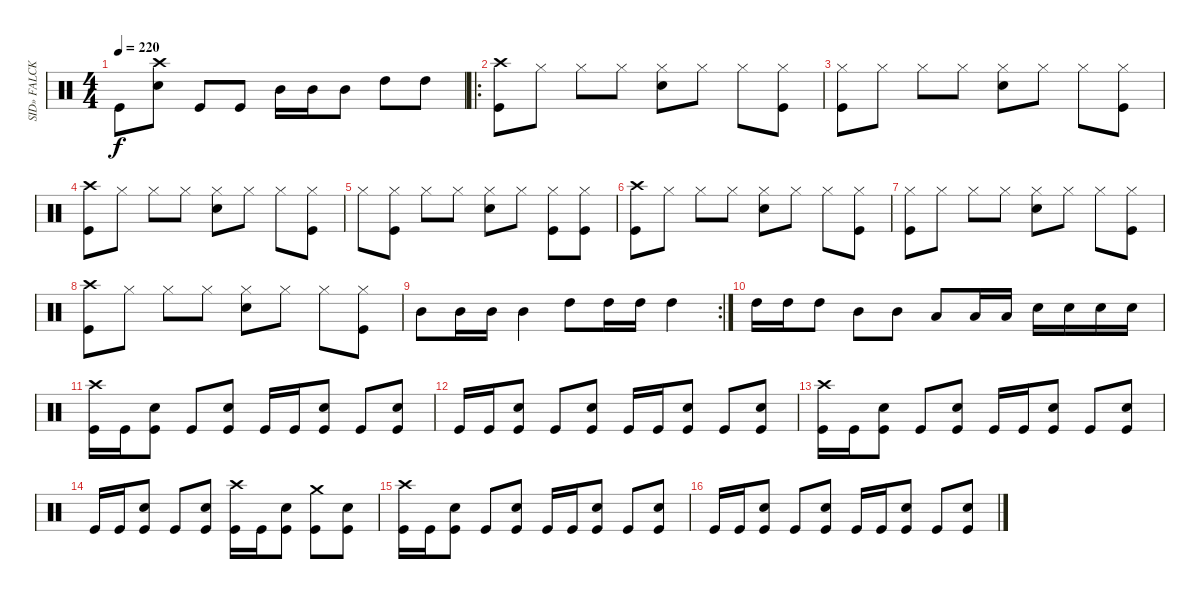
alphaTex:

\track ("SID» FALCK- Drums " "SID» FALCK") {instrument percussion}
\staff {score}
\articulation defaults
\ts (4 4)
\tempo 220
\clef neutral
\ks c "Kick (hit)".8{dy f}
("Crash high (hit)" "Electric Snare (hit)").8 "Kick (hit)".8 "Kick (hit)".8 "Mid Tom (hit)".16 "Mid Tom (hit)".16 "Mid Tom (hit)".8 "High Tom (hit)".8 "High Tom (hit)".8 |
\ro
("Crash high (hit)" "Kick (hit)").8 "Hi-Hat (closed)".8 "Hi-Hat (closed)".8 "Hi-Hat (closed)".8 ("Hi-Hat (closed)" "Electric Snare (hit)").8 "Hi-Hat (closed)".8 "Hi-Hat (closed)".8 ("Hi-Hat (closed)" "Kick (hit)").8 |
("Hi-Hat (closed)" "Kick (hit)").8 "Hi-Hat (closed)".8 "Hi-Hat (closed)".8 "Hi-Hat (closed)".8 ("Hi-Hat (closed)" "Electric Snare (hit)").8 "Hi-Hat (closed)".8 "Hi-Hat (closed)".8 ("Hi-Hat (closed)" "Kick (hit)").8 |
("Crash high (hit)" "Kick (hit)").8 "Hi-Hat (closed)".8 "Hi-Hat (closed)".8 "Hi-Hat (closed)".8 ("Hi-Hat (closed)" "Electric Snare (hit)").8 "Hi-Hat (closed)".8 "Hi-Hat (closed)".8 ("Hi-Hat (closed)" "Kick (hit)").8 |
"Hi-Hat (closed)".8 ("Hi-Hat (closed)" "Kick (hit)").8 "Hi-Hat (closed)".8 "Hi-Hat (closed)".8 ("Hi-Hat (closed)" "Electric Snare (hit)").8 "Hi-Hat (closed)".8 ("Hi-Hat (closed)" "Kick (hit)").8 ("Hi-Hat (closed)" "Kick (hit)").8 |
("Crash high (hit)" "Kick (hit)").8 "Hi-Hat (closed)".8 "Hi-Hat (closed)".8 "Hi-Hat (closed)".8 ("Hi-Hat (closed)" "Electric Snare (hit)").8 "Hi-Hat (closed)".8 "Hi-Hat (closed)".8 ("Hi-Hat (closed)" "Kick (hit)").8 |
("Hi-Hat (closed)" "Kick (hit)").8 "Hi-Hat (closed)".8 "Hi-Hat (closed)".8 "Hi-Hat (closed)".8 ("Hi-Hat (closed)" "Electric Snare (hit)").8 "Hi-Hat (closed)".8 "Hi-Hat (closed)".8 ("Hi-Hat (closed)" "Kick (hit)").8 |
("Crash high (hit)" "Kick (hit)").8 "Hi-Hat (closed)".8 "Hi-Hat (closed)".8 "Hi-Hat (closed)".8 ("Hi-Hat (closed)" "Electric Snare (hit)").8 "Hi-Hat (closed)".8 "Hi-Hat (closed)".8 ("Hi-Hat (closed)" "Kick (hit)").8 |
\rc 2 "Mid Tom (hit)".8 "Mid Tom (hit)".16 "Mid Tom (hit)".16 "Mid Tom (hit)".4 "High Tom (hit)".8 "High Tom (hit)".16 "High Tom (hit)".16 "High Tom (hit)".4
|
"High Tom (hit)".16 "High Tom (hit)".16 "High Tom (hit)".8 "Mid Tom (hit)".8 "Mid Tom (hit)".8 "Low Tom (hit)".8 "Low Tom (hit)".16 "Low Tom (hit)".16 "Electric Snare (hit)".16 "Electric Snare (hit)".16 "Electric Snare (hit)".16 "Electric Snare (hit)".16 |
("Crash high (hit)" "Kick (hit)").16 "Kick (hit)".16 ("Electric Snare (hit)" "Kick (hit)").8 "Kick (hit)".8 ("Electric Snare (hit)" "Kick (hit)").8 "Kick (hit)".16 "Kick (hit)".16 ("Electric Snare (hit)" "Kick (hit)").8 "Kick (hit)".8 ("Electric Snare (hit)" "Kick (hit)").8 |
"Kick (hit)".16 "Kick (hit)".16 ("Electric Snare (hit)" "Kick (hit)").8 "Kick (hit)".8 ("Electric Snare (hit)" "Kick (hit)").8 "Kick (hit)".16 "Kick (hit)".16 ("Electric Snare (hit)" "Kick (hit)").8 "Kick (hit)".8 ("Electric Snare (hit)" "Kick (hit)").8 |
("Crash high (hit)" "Kick (hit)").16 "Kick (hit)".16 ("Electric Snare (hit)" "Kick (hit)").8 "Kick (hit)".8 ("Electric Snare (hit)" "Kick (hit)").8 "Kick (hit)".16 "Kick (hit)".16 ("Electric Snare (hit)" "Kick (hit)").8 "Kick (hit)".8 ("Electric Snare (hit)" "Kick (hit)").8 |
"Kick (hit)".16 "Kick (hit)".16 ("Electric Snare (hit)" "Kick (hit)").8 "Kick (hit)".8 ("Electric Snare (hit)" "Kick (hit)").8 ("Crash high (hit)" "Kick (hit)").16 "Kick (hit)".16 ("Electric Snare (hit)" "Kick (hit)").8 ("Crash medium (hit)" "Kick (hit)").8 ("Electric Snare (hit)" "Kick (hit)").8 |
("Crash high (hit)" "Kick (hit)").16 "Kick (hit)".16 ("Electric Snare (hit)" "Kick (hit)").8 "Kick (hit)".8 ("Electric Snare (hit)" "Kick (hit)").8 "Kick (hit)".16 "Kick (hit)".16 ("Electric Snare (hit)" "Kick (hit)").8 "Kick (hit)".8 ("Electric Snare (hit)" "Kick (hit)").8 |
"Kick (hit)".16 "Kick (hit)".16 ("Electric Snare (hit)" "Kick (hit)").8 "Kick (hit)".8 ("Electric Snare (hit)" "Kick (hit)").8 "Kick (hit)".16 "Kick (hit)".16 ("Electric Snare (hit)" "Kick (hit)").8 "Kick (hit)".8 ("Electric Snare (hit)" "Kick (hit)").8
